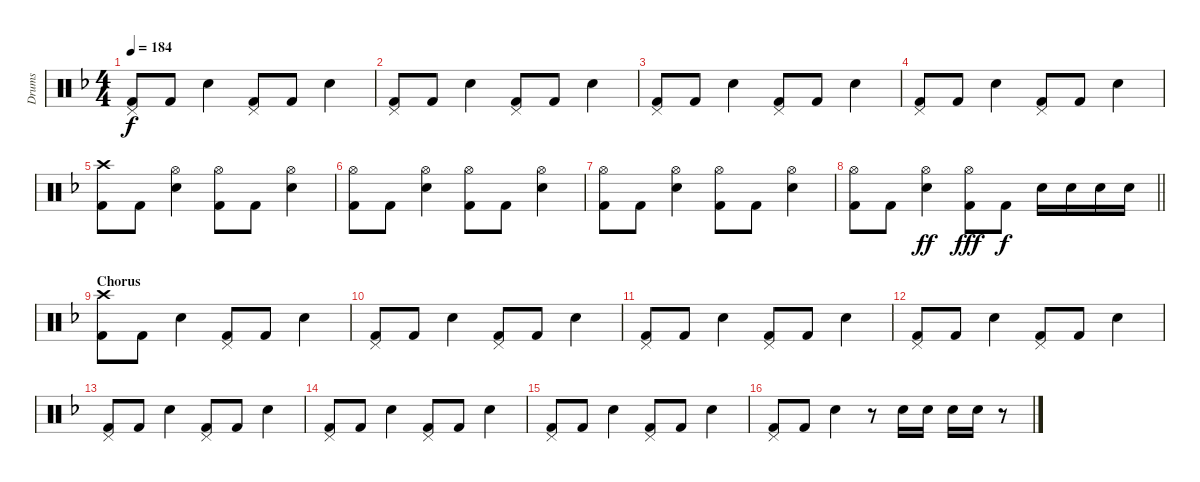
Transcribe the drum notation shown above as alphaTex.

\track ("Drums" "Drums") {instrument percussion}
\staff {score}
\articulation defaults
\ts (4 4)
\tempo 184
\clef neutral
\ks f
("Pedal Hi-Hat (hit)" "Kick (hit) 2").8{dy f} "Kick (hit) 2".8 "Electric Snare (hit)".4 ("Pedal Hi-Hat (hit)" "Kick (hit) 2").8 "Kick (hit) 2".8 "Electric Snare (hit)".4 |
("Pedal Hi-Hat (hit)" "Kick (hit) 2").8 "Kick (hit) 2".8 "Electric Snare (hit)".4 ("Pedal Hi-Hat (hit)" "Kick (hit) 2").8 "Kick (hit) 2".8 "Electric Snare (hit)".4 |
("Pedal Hi-Hat (hit)" "Kick (hit) 2").8 "Kick (hit) 2".8 "Electric Snare (hit)".4 ("Pedal Hi-Hat (hit)" "Kick (hit) 2").8 "Kick (hit) 2".8 "Electric Snare (hit)".4 |
("Pedal Hi-Hat (hit)" "Kick (hit) 2").8 "Kick (hit) 2".8 "Electric Snare (hit)".4 ("Pedal Hi-Hat (hit)" "Kick (hit) 2").8 "Kick (hit) 2".8 "Electric Snare (hit)".4 |
("Crash high (hit)" "Kick (hit) 2").8 "Kick (hit) 2".8 ("Electric Snare (hit)" "Hi-Hat (open)").4 ("Hi-Hat (open)" "Kick (hit) 2").8 "Kick (hit) 2".8 ("Electric Snare (hit)" "Hi-Hat (open)").4 |
("Hi-Hat (open)" "Kick (hit) 2").8 "Kick (hit) 2".8 ("Electric Snare (hit)" "Hi-Hat (open)").4 ("Hi-Hat (open)" "Kick (hit) 2").8 "Kick (hit) 2".8 ("Electric Snare (hit)" "Hi-Hat (open)").4 |
("Hi-Hat (open)" "Kick (hit) 2").8 "Kick (hit) 2".8 ("Electric Snare (hit)" "Hi-Hat (open)").4 ("Hi-Hat (open)" "Kick (hit) 2").8 "Kick (hit) 2".8 ("Electric Snare (hit)" "Hi-Hat (open)").4 |
\barLineRight lightlight
("Hi-Hat (open)" "Kick (hit) 2").8 "Kick (hit) 2".8 ("Electric Snare (hit)" "Hi-Hat (open)").4{dy ff} ("Hi-Hat (open)" "Kick (hit) 2").8{dy fff} "Kick (hit) 2".8{dy f} "Electric Snare (hit)".16 "Electric Snare (hit)".16 "Electric Snare (hit)".16 "Electric Snare (hit)".16 |
\section ("" "Chorus")
("Crash high (hit)" "Kick (hit) 2").8 "Kick (hit) 2".8 "Electric Snare (hit)".4 ("Pedal Hi-Hat (hit)" "Kick (hit) 2").8 "Kick (hit) 2".8 "Electric Snare (hit)".4 |
("Pedal Hi-Hat (hit)" "Kick (hit) 2").8 "Kick (hit) 2".8 "Electric Snare (hit)".4 ("Pedal Hi-Hat (hit)" "Kick (hit) 2").8 "Kick (hit) 2".8 "Electric Snare (hit)".4 |
("Pedal Hi-Hat (hit)" "Kick (hit) 2").8 "Kick (hit) 2".8 "Electric Snare (hit)".4 ("Pedal Hi-Hat (hit)" "Kick (hit) 2").8 "Kick (hit) 2".8 "Electric Snare (hit)".4 |
("Pedal Hi-Hat (hit)" "Kick (hit) 2").8 "Kick (hit) 2".8 "Electric Snare (hit)".4 ("Pedal Hi-Hat (hit)" "Kick (hit) 2").8 "Kick (hit) 2".8 "Electric Snare (hit)".4 |
("Pedal Hi-Hat (hit)" "Kick (hit) 2").8 "Kick (hit) 2".8 "Electric Snare (hit)".4 ("Pedal Hi-Hat (hit)" "Kick (hit) 2").8 "Kick (hit) 2".8 "Electric Snare (hit)".4 |
("Pedal Hi-Hat (hit)" "Kick (hit) 2").8 "Kick (hit) 2".8 "Electric Snare (hit)".4 ("Pedal Hi-Hat (hit)" "Kick (hit) 2").8 "Kick (hit) 2".8 "Electric Snare (hit)".4 |
("Pedal Hi-Hat (hit)" "Kick (hit) 2").8 "Kick (hit) 2".8 "Electric Snare (hit)".4 ("Pedal Hi-Hat (hit)" "Kick (hit) 2").8 "Kick (hit) 2".8 "Electric Snare (hit)".4 |
("Pedal Hi-Hat (hit)" "Kick (hit) 2").8 "Kick (hit) 2".8 "Electric Snare (hit)".4 r.8 "Electric Snare (hit)".16 "Electric Snare (hit)".16 "Electric Snare (hit)".16 "Electric Snare (hit)".16 r.8
